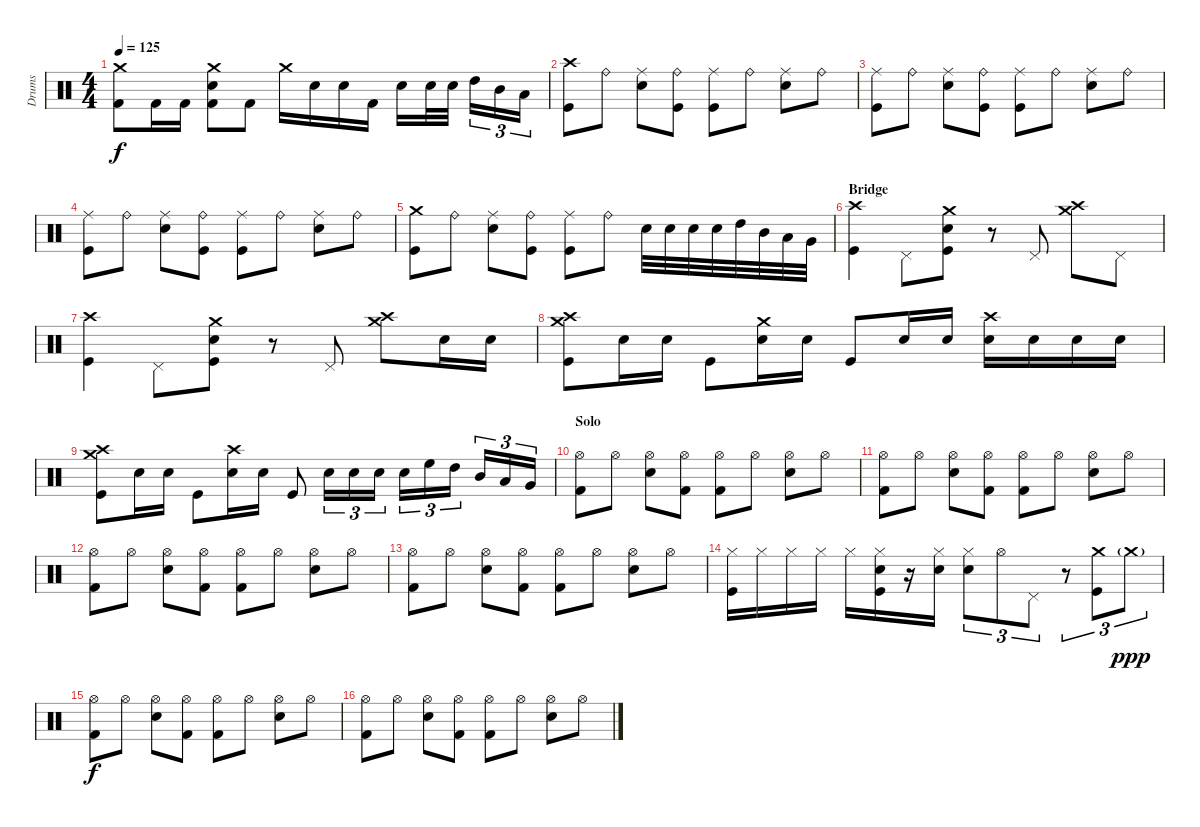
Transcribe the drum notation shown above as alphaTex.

\track ("Drums" "Drums") {instrument percussion}
\staff {score}
\articulation defaults
\ts (4 4)
\tempo 125
\clef neutral
\ks c
("Crash medium (hit)" "Kick (hit) 2").8{dy f} "Kick (hit) 2".16 "Kick (hit) 2".16 ("Crash medium (hit)" "Electric Snare (hit)" "Kick (hit) 2").8 "Kick (hit) 2".8 "Crash medium (hit)".16 "Electric Snare (hit)".16 "Electric Snare (hit)".16 "Kick (hit) 2".16 "Electric Snare (hit)".16 "Electric Snare (hit)".32 "Electric Snare (hit)".32 "High Tom (hit)".16{tu (3 2)} "Mid Tom (hit)".16{tu (3 2)} "Low Tom (hit)".16{tu (3 2)} |
("Crash high (hit)" "Kick (hit)").8 "Ride (bell)".8 ("Ride (middle)" "Electric Snare (hit)").8 ("Ride (bell)" "Kick (hit)").8 ("Ride (middle)" "Kick (hit)").8 "Ride (bell)".8 ("Ride (middle)" "Electric Snare (hit)").8 "Ride (bell)".8 |
("Ride (middle)" "Kick (hit)").8 "Ride (bell)".8 ("Ride (middle)" "Electric Snare (hit)").8 ("Ride (bell)" "Kick (hit)").8 ("Ride (middle)" "Kick (hit)").8 "Ride (bell)".8 ("Ride (middle)" "Electric Snare (hit)").8 "Ride (bell)".8 |
("Ride (middle)" "Kick (hit)").8 "Ride (bell)".8 ("Ride (middle)" "Electric Snare (hit)").8 ("Ride (bell)" "Kick (hit)").8 ("Ride (middle)" "Kick (hit)").8 "Ride (bell)".8 ("Ride (middle)" "Electric Snare (hit)").8 "Ride (bell)".8 |
("Crash medium (hit)" "Kick (hit)").8 "Ride (bell)".8 ("Ride (middle)" "Electric Snare (hit)").8 ("Ride (bell)" "Kick (hit)").8 ("Ride (middle)" "Kick (hit)").8 "Ride (bell)".8 "Electric Snare (hit)".32 "Electric Snare (hit)".32 "Electric Snare (hit)".32 "Electric Snare (hit)".32 "High Tom (hit)".32 "Mid Tom (hit)".32 "Low Tom (hit)".32 "Very Low Tom (hit)".32 |
\section ("" "Bridge")
("Crash high (hit)" "Kick (hit)").4 "Pedal Hi-Hat (hit)".8 ("Crash medium (hit)" "Electric Snare (hit)" "Kick (hit)").8 r.8 "Pedal Hi-Hat (hit)".8 ("Crash high (hit)" "Crash medium (hit)").8 "Pedal Hi-Hat (hit)".8 |
("Crash high (hit)" "Kick (hit)").4 "Pedal Hi-Hat (hit)".8 ("Crash medium (hit)" "Electric Snare (hit)" "Kick (hit)").8 r.8 "Pedal Hi-Hat (hit)".8 ("Crash high (hit)" "Crash medium (hit)").8 "Electric Snare (hit)".16 "Electric Snare (hit)".16 |
("Crash high (hit)" "Crash medium (hit)" "Kick (hit)").8 "Electric Snare (hit)".16 "Electric Snare (hit)".16 "Kick (hit)".8 ("Crash medium (hit)" "Electric Snare (hit)").16 "Electric Snare (hit)".16 "Kick (hit)".8 "Electric Snare (hit)".16 "Electric Snare (hit)".16 ("Crash high (hit)" "Electric Snare (hit)").16 "Electric Snare (hit)".16 "Electric Snare (hit)".16 "Electric Snare (hit)".16 |
("Crash medium (hit)" "Crash high (hit)" "Kick (hit)").8 "Electric Snare (hit)".16 "Electric Snare (hit)".16 "Kick (hit)".8 ("Crash high (hit)" "Electric Snare (hit)").16 "Electric Snare (hit)".16 "Kick (hit)".8 "Electric Snare (hit)".16{tu (3 2)} "Electric Snare (hit)".16{tu (3 2)} "Electric Snare (hit)".16{tu (3 2)} "Electric Snare (hit)".16{tu (3 2)} "High Floor Tom (hit)".16{tu (3 2)} "High Tom (hit)".16{tu (3 2)} "Mid Tom (hit)".16{tu (3 2)} "Low Tom (hit)".16{tu (3 2)} "Very Low Tom (hit)".16{tu (3 2)} |
\section ("" "Solo")
("Hi-Hat (open)" "Kick (hit) 2").8 "Hi-Hat (open)".8 ("Hi-Hat (open)" "Electric Snare (hit)").8 ("Hi-Hat (open)" "Kick (hit) 2").8 ("Hi-Hat (open)" "Kick (hit) 2").8 "Hi-Hat (open)".8 ("Hi-Hat (open)" "Electric Snare (hit)").8 "Hi-Hat (open)".8 |
("Hi-Hat (open)" "Kick (hit) 2").8 "Hi-Hat (open)".8 ("Hi-Hat (open)" "Electric Snare (hit)").8 ("Hi-Hat (open)" "Kick (hit) 2").8 ("Hi-Hat (open)" "Kick (hit) 2").8 "Hi-Hat (open)".8 ("Hi-Hat (open)" "Electric Snare (hit)").8 "Hi-Hat (open)".8 |
("Hi-Hat (open)" "Kick (hit) 2").8 "Hi-Hat (open)".8 ("Hi-Hat (open)" "Electric Snare (hit)").8 ("Hi-Hat (open)" "Kick (hit) 2").8 ("Hi-Hat (open)" "Kick (hit) 2").8 "Hi-Hat (open)".8 ("Hi-Hat (open)" "Electric Snare (hit)").8 "Hi-Hat (open)".8 |
("Hi-Hat (open)" "Kick (hit) 2").8 "Hi-Hat (open)".8 ("Hi-Hat (open)" "Electric Snare (hit)").8 ("Hi-Hat (open)" "Kick (hit) 2").8 ("Hi-Hat (open)" "Kick (hit) 2").8 "Hi-Hat (open)".8 ("Hi-Hat (open)" "Electric Snare (hit)").8 "Hi-Hat (open)".8 |
("Hi-Hat (closed)" "Kick (hit)").16 "Hi-Hat (closed)".16 "Hi-Hat (closed)".16 "Hi-Hat (closed)".16 "Hi-Hat (closed)".16 ("Hi-Hat (closed)" "Electric Snare (hit)" "Kick (hit)").16 r.16 ("Hi-Hat (closed)" "Electric Snare (hit)").16 ("Hi-Hat (closed)" "Electric Snare (hit)").8{tu (3 2)} "Hi-Hat (open)".8{tu (3 2)} "Pedal Hi-Hat (hit)".8{tu (3 2)} r.8{tu (3 2)} ("Crash medium (hit)" "Kick (hit)").8{tu (3 2)} "Crash medium (hit)"{g}.8{tu (3 2) dy ppp} |
("Hi-Hat (open)" "Kick (hit) 2").8{dy f} "Hi-Hat (open)".8 ("Hi-Hat (open)" "Electric Snare (hit)").8 ("Hi-Hat (open)" "Kick (hit) 2").8 ("Hi-Hat (open)" "Kick (hit) 2").8 "Hi-Hat (open)".8 ("Hi-Hat (open)" "Electric Snare (hit)").8 "Hi-Hat (open)".8 |
("Hi-Hat (open)" "Kick (hit) 2").8 "Hi-Hat (open)".8 ("Hi-Hat (open)" "Electric Snare (hit)").8 ("Hi-Hat (open)" "Kick (hit) 2").8 ("Hi-Hat (open)" "Kick (hit) 2").8 "Hi-Hat (open)".8 ("Hi-Hat (open)" "Electric Snare (hit)").8 "Hi-Hat (open)".8
